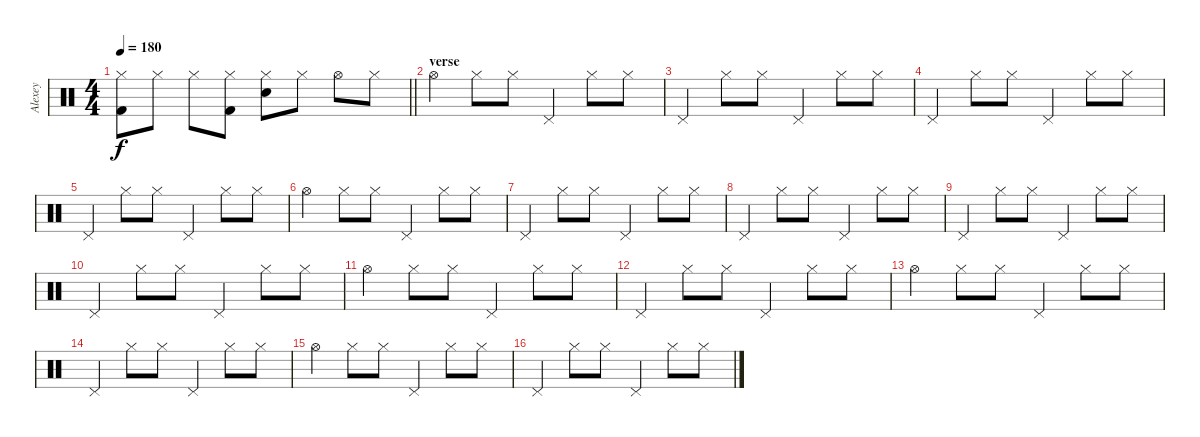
\track ("Alexey" "Alexey") {instrument percussion}
\staff {score}
\articulation defaults
\ts (4 4)
\tempo 180
\clef neutral
\barLineRight lightlight
\ks c
("Hi-Hat (closed)" "Kick (hit) 2").8{dy f} "Hi-Hat (closed)".8 "Hi-Hat (closed)".8 ("Hi-Hat (closed)" "Kick (hit) 2").8 ("Hi-Hat (closed)" "Snare (hit) 2").8 "Hi-Hat (closed)".8 "Hi-Hat (open)".8 "Hi-Hat (closed)".8 |
\section ("" "verse")
"Hi-Hat (open)".4 "Hi-Hat (closed)".8 "Hi-Hat (closed)".8 "Pedal Hi-Hat (hit)".4 "Hi-Hat (closed)".8 "Hi-Hat (closed)".8 |
"Pedal Hi-Hat (hit)".4 "Hi-Hat (closed)".8 "Hi-Hat (closed)".8 "Pedal Hi-Hat (hit)".4 "Hi-Hat (closed)".8 "Hi-Hat (closed)".8 |
"Pedal Hi-Hat (hit)".4 "Hi-Hat (closed)".8 "Hi-Hat (closed)".8 "Pedal Hi-Hat (hit)".4 "Hi-Hat (closed)".8 "Hi-Hat (closed)".8 |
"Pedal Hi-Hat (hit)".4 "Hi-Hat (closed)".8 "Hi-Hat (closed)".8 "Pedal Hi-Hat (hit)".4 "Hi-Hat (closed)".8 "Hi-Hat (closed)".8 |
"Hi-Hat (open)".4 "Hi-Hat (closed)".8 "Hi-Hat (closed)".8 "Pedal Hi-Hat (hit)".4 "Hi-Hat (closed)".8 "Hi-Hat (closed)".8 |
"Pedal Hi-Hat (hit)".4 "Hi-Hat (closed)".8 "Hi-Hat (closed)".8 "Pedal Hi-Hat (hit)".4 "Hi-Hat (closed)".8 "Hi-Hat (closed)".8 |
"Pedal Hi-Hat (hit)".4 "Hi-Hat (closed)".8 "Hi-Hat (closed)".8 "Pedal Hi-Hat (hit)".4 "Hi-Hat (closed)".8 "Hi-Hat (closed)".8 |
"Pedal Hi-Hat (hit)".4 "Hi-Hat (closed)".8 "Hi-Hat (closed)".8 "Pedal Hi-Hat (hit)".4 "Hi-Hat (closed)".8 "Hi-Hat (closed)".8 |
"Pedal Hi-Hat (hit)".4 "Hi-Hat (closed)".8 "Hi-Hat (closed)".8 "Pedal Hi-Hat (hit)".4 "Hi-Hat (closed)".8 "Hi-Hat (closed)".8 |
"Hi-Hat (open)".4 "Hi-Hat (closed)".8 "Hi-Hat (closed)".8 "Pedal Hi-Hat (hit)".4 "Hi-Hat (closed)".8 "Hi-Hat (closed)".8 |
"Pedal Hi-Hat (hit)".4 "Hi-Hat (closed)".8 "Hi-Hat (closed)".8 "Pedal Hi-Hat (hit)".4 "Hi-Hat (closed)".8 "Hi-Hat (closed)".8 |
"Hi-Hat (open)".4 "Hi-Hat (closed)".8 "Hi-Hat (closed)".8 "Pedal Hi-Hat (hit)".4 "Hi-Hat (closed)".8 "Hi-Hat (closed)".8 |
"Pedal Hi-Hat (hit)".4 "Hi-Hat (closed)".8 "Hi-Hat (closed)".8 "Pedal Hi-Hat (hit)".4 "Hi-Hat (closed)".8 "Hi-Hat (closed)".8 |
"Hi-Hat (open)".4 "Hi-Hat (closed)".8 "Hi-Hat (closed)".8 "Pedal Hi-Hat (hit)".4 "Hi-Hat (closed)".8 "Hi-Hat (closed)".8 |
"Pedal Hi-Hat (hit)".4 "Hi-Hat (closed)".8 "Hi-Hat (closed)".8 "Pedal Hi-Hat (hit)".4 "Hi-Hat (closed)".8 "Hi-Hat (closed)".8
